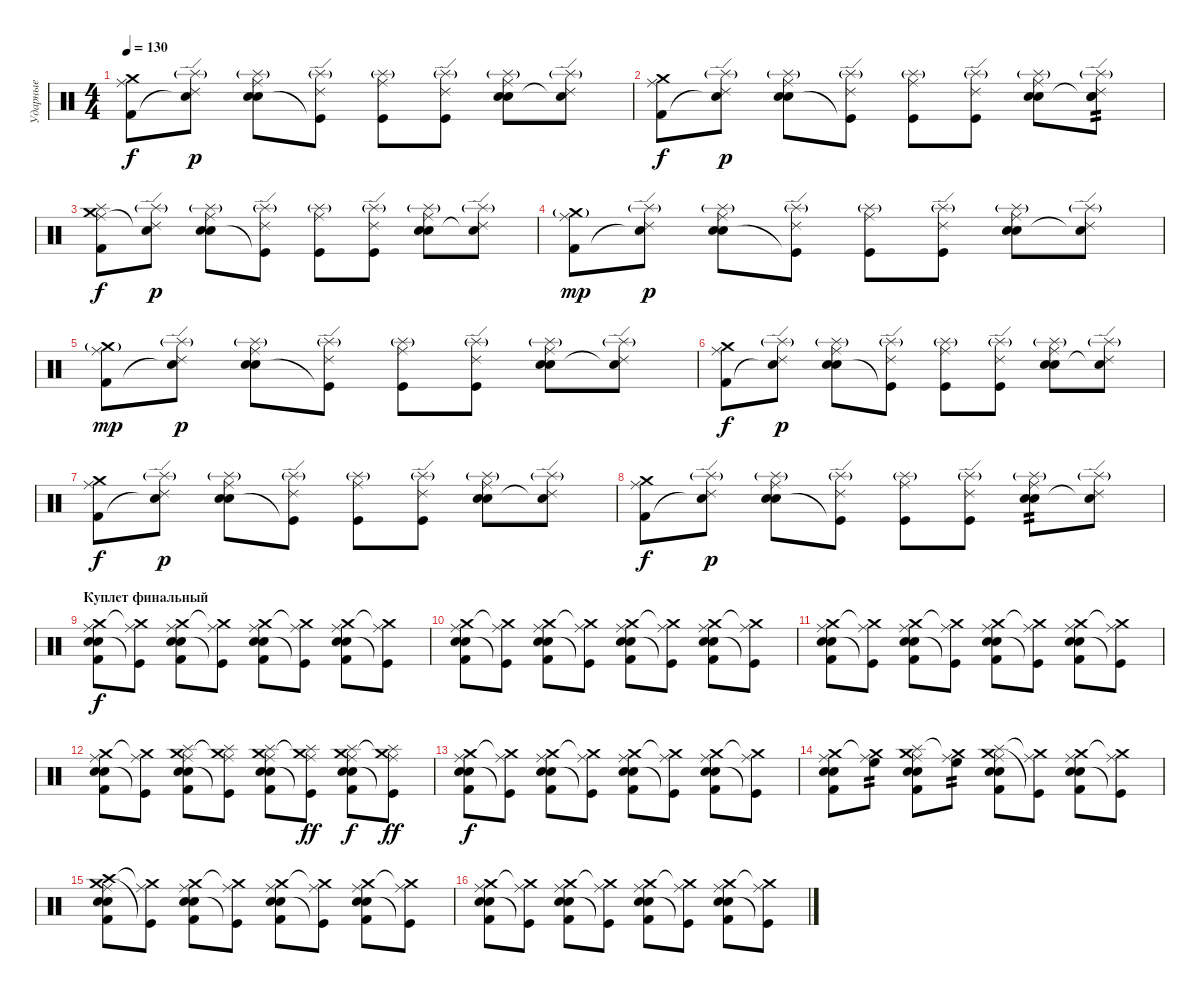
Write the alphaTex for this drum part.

\track ("Ударные" "Ударные") {instrument percussion}
\staff {score}
\articulation defaults
\ts (4 4)
\tempo 130
\clef neutral
\ks c
("Crash medium (hit)" "Ride (middle)" "Kick (hit) 2").8{dy f} ("Splash (hit)"{g} "Ride (edge) 2" "Snare (hit)"{t}).8{dy p} ("Splash (hit)"{g} "Ride (middle)" "Snare (hit) 2" "Electric Snare (hit)").8 ("Splash (hit)"{g} "Ride (edge) 2" "Kick (hit)"{t}).8 ("Splash (hit)"{g} "Ride (middle)" "Kick (hit)").8 ("Splash (hit)"{g} "Ride (edge) 2" "Kick (hit)").8 ("Splash (hit)"{g} "Ride (middle)" "Snare (hit) 2" "Electric Snare (hit)").8 ("Splash (hit)"{g} "Ride (edge) 2" "Snare (hit)"{t}).8 |
("Crash medium (hit)" "Ride (middle)" "Kick (hit) 2").8{dy f} ("Splash (hit)"{g} "Ride (edge) 2" "Snare (hit)"{t}).8{dy p} ("Splash (hit)"{g} "Ride (middle)" "Snare (hit) 2" "Electric Snare (hit)").8 ("Splash (hit)"{g} "Ride (edge) 2" "Kick (hit)"{t}).8 ("Splash (hit)"{g} "Ride (middle)" "Kick (hit)").8 ("Splash (hit)"{g} "Ride (edge) 2" "Kick (hit)").8 ("Splash (hit)"{g} "Ride (middle)" "Snare (hit) 2" "Electric Snare (hit)").8 ("Splash (hit)"{g} "Ride (edge) 2" "Snare (hit)"{t} "Electric Snare (hit)").8{tp 2} |
("Splash (hit)" "Crash medium (hit)" "Ride (middle)" "Kick (hit) 2").8{dy f} ("Splash (hit)"{g} "Ride (edge) 2" "Snare (hit)"{t}).8{dy p} ("Splash (hit)"{g} "Ride (middle)" "Snare (hit) 2" "Electric Snare (hit)").8 ("Splash (hit)"{g} "Ride (edge) 2" "Kick (hit)"{t}).8 ("Splash (hit)"{g} "Ride (middle)" "Kick (hit)").8 ("Splash (hit)"{g} "Ride (edge) 2" "Kick (hit)").8 ("Splash (hit)"{g} "Ride (middle)" "Snare (hit) 2" "Electric Snare (hit)").8 ("Splash (hit)"{g} "Ride (edge) 2" "Snare (hit)"{t}).8 |
("Crash medium (hit)"{g} "Ride (middle)" "Kick (hit) 2").8{dy mp} ("Splash (hit)"{g} "Ride (edge) 2" "Snare (hit)"{t}).8{dy p} ("Splash (hit)"{g} "Ride (middle)" "Snare (hit) 2" "Electric Snare (hit)").8 ("Splash (hit)"{g} "Ride (edge) 2" "Kick (hit)"{t}).8 ("Splash (hit)"{g} "Ride (middle)" "Kick (hit)").8 ("Splash (hit)"{g} "Ride (edge) 2" "Kick (hit)").8 ("Splash (hit)"{g} "Ride (middle)" "Snare (hit) 2" "Electric Snare (hit)").8 ("Splash (hit)"{g} "Ride (edge) 2" "Snare (hit)"{t}).8 |
("Crash medium (hit)"{g} "Ride (middle)" "Kick (hit) 2").8{dy mp} ("Splash (hit)"{g} "Ride (edge) 2" "Snare (hit)"{t}).8{dy p} ("Splash (hit)"{g} "Ride (middle)" "Snare (hit) 2" "Electric Snare (hit)").8 ("Splash (hit)"{g} "Ride (edge) 2" "Kick (hit)"{t}).8 ("Splash (hit)"{g} "Ride (middle)" "Kick (hit)").8 ("Splash (hit)"{g} "Ride (edge) 2" "Kick (hit)").8 ("Splash (hit)"{g} "Ride (middle)" "Snare (hit) 2" "Electric Snare (hit)").8 ("Splash (hit)"{g} "Ride (edge) 2" "Snare (hit)"{t}).8 |
("Crash medium (hit)" "Ride (middle)" "Kick (hit) 2").8{dy f} ("Splash (hit)"{g} "Ride (edge) 2" "Snare (hit)"{t}).8{dy p} ("Splash (hit)"{g} "Ride (middle)" "Snare (hit) 2" "Electric Snare (hit)").8 ("Splash (hit)"{g} "Ride (edge) 2" "Kick (hit)"{t}).8 ("Splash (hit)"{g} "Ride (middle)" "Kick (hit)").8 ("Splash (hit)"{g} "Ride (edge) 2" "Kick (hit)").8 ("Splash (hit)"{g} "Ride (middle)" "Snare (hit) 2" "Electric Snare (hit)").8 ("Splash (hit)"{g} "Ride (edge) 2" "Snare (hit)"{t}).8 |
("Crash medium (hit)" "Ride (middle)" "Kick (hit) 2").8{dy f} ("Splash (hit)"{g} "Ride (edge) 2" "Snare (hit)"{t}).8{dy p} ("Splash (hit)"{g} "Ride (middle)" "Snare (hit) 2" "Electric Snare (hit)").8 ("Splash (hit)"{g} "Ride (edge) 2" "Kick (hit)"{t}).8 ("Splash (hit)"{g} "Ride (middle)" "Kick (hit)").8 ("Splash (hit)"{g} "Ride (edge) 2" "Kick (hit)").8 ("Splash (hit)"{g} "Ride (middle)" "Snare (hit) 2" "Electric Snare (hit)").8 ("Splash (hit)"{g} "Ride (edge) 2" "Snare (hit)"{t}).8 |
("Crash medium (hit)" "Ride (middle)" "Kick (hit) 2").8{dy f} ("Splash (hit)"{g} "Ride (edge) 2" "Snare (hit)"{t}).8{dy p} ("Splash (hit)"{g} "Ride (middle)" "Snare (hit) 2" "Electric Snare (hit)").8 ("Splash (hit)"{g} "Ride (edge) 2" "Kick (hit)"{t}).8 ("Splash (hit)"{g} "Ride (middle)" "Kick (hit)").8 ("Splash (hit)"{g} "Ride (edge) 2" "Kick (hit)").8 ("Splash (hit)"{g} "Ride (middle)" "Snare (hit) 2" "Electric Snare (hit)").8{tp 2} ("Splash (hit)"{g} "Ride (edge) 2" "Snare (hit)"{t}).8 |
\section ("" "Куплет финальный")
("Crash medium (hit)" "Electric Snare (hit)" "Ride (middle)" "Kick (hit) 2" "Snare (hit) 2").8{dy f} ("Crash medium (hit)"{t} "Kick (hit)"{t} "Ride (middle)").8 ("Crash medium (hit)" "Electric Snare (hit)" "Ride (middle)" "Kick (hit) 2" "Snare (hit) 2").8 ("Crash medium (hit)"{t} "Kick (hit)"{t} "Ride (middle)").8 ("Crash medium (hit)" "Electric Snare (hit)" "Ride (middle)" "Kick (hit) 2" "Snare (hit) 2").8 ("Crash medium (hit)"{t} "Kick (hit)"{t} "Ride (middle)").8 ("Crash medium (hit)" "Electric Snare (hit)" "Ride (middle)" "Kick (hit) 2" "Snare (hit) 2").8 ("Crash medium (hit)"{t} "Kick (hit)"{t} "Ride (middle)").8 |
("Crash medium (hit)" "Electric Snare (hit)" "Ride (middle)" "Kick (hit) 2" "Snare (hit) 2").8 ("Crash medium (hit)"{t} "Kick (hit)"{t} "Ride (middle)").8 ("Crash medium (hit)" "Electric Snare (hit)" "Ride (middle)" "Kick (hit) 2" "Snare (hit) 2").8 ("Crash medium (hit)"{t} "Kick (hit)"{t} "Ride (middle)").8 ("Crash medium (hit)" "Electric Snare (hit)" "Ride (middle)" "Kick (hit) 2" "Snare (hit) 2").8 ("Crash medium (hit)"{t} "Kick (hit)"{t} "Ride (middle)").8 ("Crash medium (hit)" "Electric Snare (hit)" "Ride (middle)" "Kick (hit) 2" "Snare (hit) 2").8 ("Crash medium (hit)"{t} "Kick (hit)"{t} "Ride (middle)").8 |
("Crash medium (hit)" "Electric Snare (hit)" "Ride (middle)" "Kick (hit) 2" "Snare (hit) 2").8 ("Crash medium (hit)"{t} "Kick (hit)"{t} "Ride (middle)").8 ("Crash medium (hit)" "Electric Snare (hit)" "Ride (middle)" "Kick (hit) 2" "Snare (hit) 2").8 ("Crash medium (hit)"{t} "Kick (hit)"{t} "Ride (middle)").8 ("Crash medium (hit)" "Electric Snare (hit)" "Ride (middle)" "Kick (hit) 2" "Snare (hit) 2").8 ("Crash medium (hit)"{t} "Kick (hit)"{t} "Ride (middle)").8 ("Crash medium (hit)" "Electric Snare (hit)" "Ride (middle)" "Kick (hit) 2" "Snare (hit) 2").8 ("Crash medium (hit)"{t} "Kick (hit)"{t} "Ride (middle)").8 |
("Crash medium (hit)" "Electric Snare (hit)" "Ride (middle)" "Kick (hit) 2" "Snare (hit) 2").8 ("Crash medium (hit)"{t} "Kick (hit)"{t} "Ride (middle)").8 ("Splash (hit)" "Crash medium (hit)" "Electric Snare (hit)" "Ride (middle)" "Kick (hit) 2" "Snare (hit) 2").8 ("Splash (hit)" "Crash medium (hit)"{t} "Kick (hit)"{t} "Ride (middle)").8 ("Splash (hit)" "Crash medium (hit)" "Electric Snare (hit)" "Ride (middle)" "Kick (hit) 2" "Snare (hit) 2").8 ("Splash (hit)" "Crash medium (hit)"{t} "Kick (hit)"{t} "Ride (middle)").8{dy ff} ("Splash (hit)" "Crash medium (hit)" "Electric Snare (hit)" "Ride (middle)" "Kick (hit) 2" "Snare (hit) 2").8{dy f} ("Splash (hit)" "Crash medium (hit)"{t} "Kick (hit)"{t} "Ride (middle)").8{dy ff} |
("Crash medium (hit)" "Electric Snare (hit)" "Ride (middle)" "Kick (hit) 2" "Snare (hit) 2").8{dy f} ("Crash medium (hit)"{t} "Kick (hit)"{t} "Ride (middle)").8 ("Crash medium (hit)" "Electric Snare (hit)" "Ride (middle)" "Kick (hit) 2" "Snare (hit) 2").8 ("Crash medium (hit)"{t} "Kick (hit)"{t} "Ride (middle)").8 ("Crash medium (hit)" "Electric Snare (hit)" "Ride (middle)" "Kick (hit) 2" "Snare (hit) 2").8 ("Crash medium (hit)"{t} "Kick (hit)"{t} "Ride (middle)").8 ("Crash medium (hit)" "Electric Snare (hit)" "Ride (middle)" "Kick (hit) 2" "Snare (hit) 2").8 ("Crash medium (hit)"{t} "Kick (hit)"{t} "Ride (middle)").8 |
("Crash medium (hit)" "Electric Snare (hit)" "Ride (middle)" "Kick (hit) 2" "Snare (hit) 2").8 ("Crash medium (hit)"{t} "High Floor Tom (hit)" "Ride (middle)").8{tp 2} ("Splash (hit)" "Crash medium (hit)" "Electric Snare (hit)" "Ride (middle)" "Kick (hit) 2" "Snare (hit) 2").8 ("Crash medium (hit)"{t} "High Floor Tom (hit)" "Ride (middle)").8{tp 2} ("Splash (hit)" "Crash medium (hit)" "Electric Snare (hit)" "Ride (middle)" "Kick (hit) 2" "Snare (hit) 2").8 ("Crash medium (hit)"{t} "Kick (hit)"{t} "Ride (middle)").8 ("Crash medium (hit)" "Electric Snare (hit)" "Ride (middle)" "Kick (hit) 2" "Snare (hit) 2").8 ("Crash medium (hit)"{t} "Kick (hit)"{t} "Ride (middle)").8 |
("Crash high (hit)" "Crash medium (hit)" "Electric Snare (hit)" "Ride (middle)" "Kick (hit) 2" "Snare (hit) 2").8 ("Crash medium (hit)"{t} "Kick (hit)"{t} "Ride (middle)").8 ("Crash medium (hit)" "Electric Snare (hit)" "Ride (middle)" "Kick (hit) 2" "Snare (hit) 2").8 ("Crash medium (hit)"{t} "Kick (hit)"{t} "Ride (middle)").8 ("Crash medium (hit)" "Electric Snare (hit)" "Ride (middle)" "Kick (hit) 2" "Snare (hit) 2").8 ("Crash medium (hit)"{t} "Kick (hit)"{t} "Ride (middle)").8 ("Crash medium (hit)" "Electric Snare (hit)" "Ride (middle)" "Kick (hit) 2" "Snare (hit) 2").8 ("Crash medium (hit)"{t} "Kick (hit)"{t} "Ride (middle)").8 |
("Crash medium (hit)" "Electric Snare (hit)" "Ride (middle)" "Kick (hit) 2" "Snare (hit) 2").8 ("Crash medium (hit)"{t} "Kick (hit)"{t} "Ride (middle)").8 ("Crash medium (hit)" "Electric Snare (hit)" "Ride (middle)" "Kick (hit) 2" "Snare (hit) 2").8 ("Crash medium (hit)"{t} "Kick (hit)"{t} "Ride (middle)").8 ("Crash medium (hit)" "Electric Snare (hit)" "Ride (middle)" "Kick (hit) 2" "Snare (hit) 2").8 ("Crash medium (hit)"{t} "Kick (hit)"{t} "Ride (middle)").8 ("Crash medium (hit)" "Electric Snare (hit)" "Ride (middle)" "Kick (hit) 2" "Snare (hit) 2").8 ("Crash medium (hit)"{t} "Kick (hit)"{t} "Ride (middle)").8
